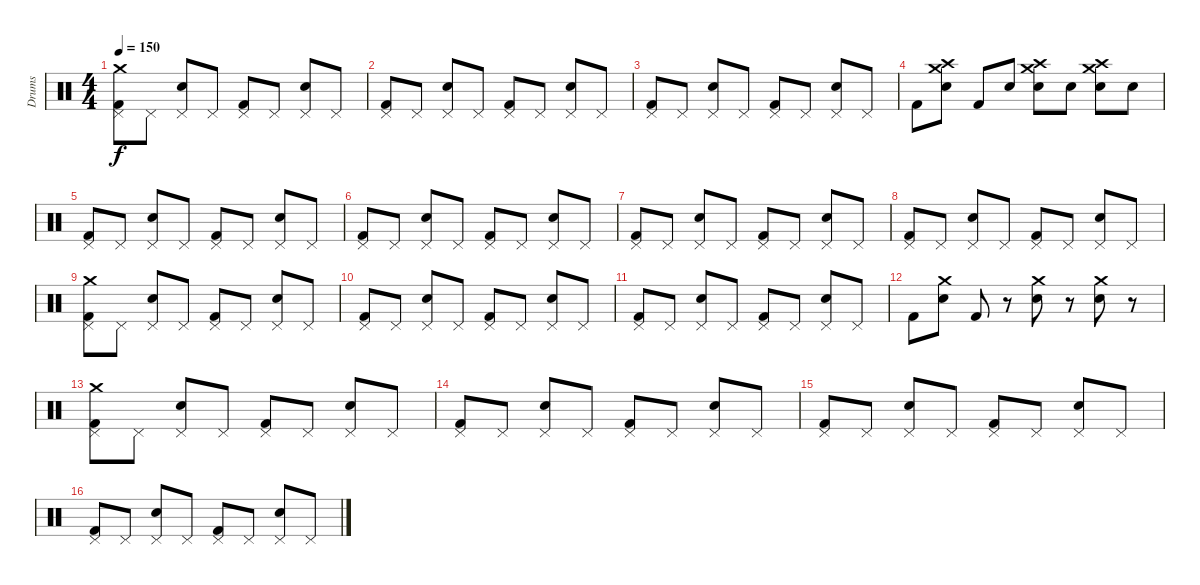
\track ("Drums" "Drums") {instrument percussion}
\staff {score}
\articulation defaults
\ts (4 4)
\tempo 150
\clef neutral
\ks c
("Crash medium (hit)" "Pedal Hi-Hat (hit)" "Kick (hit) 2").8{dy f} "Pedal Hi-Hat (hit)".8 ("Pedal Hi-Hat (hit)" "Electric Snare (hit)").8 "Pedal Hi-Hat (hit)".8 ("Pedal Hi-Hat (hit)" "Kick (hit) 2").8 "Pedal Hi-Hat (hit)".8 ("Pedal Hi-Hat (hit)" "Electric Snare (hit)").8 "Pedal Hi-Hat (hit)".8 |
("Pedal Hi-Hat (hit)" "Kick (hit) 2").8 "Pedal Hi-Hat (hit)".8 ("Pedal Hi-Hat (hit)" "Electric Snare (hit)").8 "Pedal Hi-Hat (hit)".8 ("Pedal Hi-Hat (hit)" "Kick (hit) 2").8 "Pedal Hi-Hat (hit)".8 ("Pedal Hi-Hat (hit)" "Electric Snare (hit)").8 "Pedal Hi-Hat (hit)".8 |
("Pedal Hi-Hat (hit)" "Kick (hit) 2").8 "Pedal Hi-Hat (hit)".8 ("Pedal Hi-Hat (hit)" "Electric Snare (hit)").8 "Pedal Hi-Hat (hit)".8 ("Pedal Hi-Hat (hit)" "Kick (hit) 2").8 "Pedal Hi-Hat (hit)".8 ("Pedal Hi-Hat (hit)" "Electric Snare (hit)").8 "Pedal Hi-Hat (hit)".8 |
"Kick (hit) 2".8 ("Crash high (hit)" "Crash medium (hit)" "Electric Snare (hit)").8 "Kick (hit) 2".8 "Snare (hit)".8 ("Crash high (hit)" "Crash medium (hit)" "Electric Snare (hit)").8 "Snare (hit)".8 ("Crash high (hit)" "Crash medium (hit)" "Electric Snare (hit)").8 "Snare (hit)".8 |
("Pedal Hi-Hat (hit)" "Kick (hit) 2").8 "Pedal Hi-Hat (hit)".8 ("Pedal Hi-Hat (hit)" "Electric Snare (hit)").8 "Pedal Hi-Hat (hit)".8 ("Pedal Hi-Hat (hit)" "Kick (hit) 2").8 "Pedal Hi-Hat (hit)".8 ("Pedal Hi-Hat (hit)" "Electric Snare (hit)").8 "Pedal Hi-Hat (hit)".8 |
("Pedal Hi-Hat (hit)" "Kick (hit) 2").8 "Pedal Hi-Hat (hit)".8 ("Pedal Hi-Hat (hit)" "Electric Snare (hit)").8 "Pedal Hi-Hat (hit)".8 ("Pedal Hi-Hat (hit)" "Kick (hit) 2").8 "Pedal Hi-Hat (hit)".8 ("Pedal Hi-Hat (hit)" "Electric Snare (hit)").8 "Pedal Hi-Hat (hit)".8 |
("Pedal Hi-Hat (hit)" "Kick (hit) 2").8 "Pedal Hi-Hat (hit)".8 ("Pedal Hi-Hat (hit)" "Electric Snare (hit)").8 "Pedal Hi-Hat (hit)".8 ("Pedal Hi-Hat (hit)" "Kick (hit) 2").8 "Pedal Hi-Hat (hit)".8 ("Pedal Hi-Hat (hit)" "Electric Snare (hit)").8 "Pedal Hi-Hat (hit)".8 |
("Pedal Hi-Hat (hit)" "Kick (hit) 2").8 "Pedal Hi-Hat (hit)".8 ("Pedal Hi-Hat (hit)" "Electric Snare (hit)").8 "Pedal Hi-Hat (hit)".8 ("Pedal Hi-Hat (hit)" "Kick (hit) 2").8 "Pedal Hi-Hat (hit)".8 ("Pedal Hi-Hat (hit)" "Electric Snare (hit)").8 "Pedal Hi-Hat (hit)".8 |
("Crash medium (hit)" "Pedal Hi-Hat (hit)" "Kick (hit) 2").8 "Pedal Hi-Hat (hit)".8 ("Pedal Hi-Hat (hit)" "Electric Snare (hit)").8 "Pedal Hi-Hat (hit)".8 ("Pedal Hi-Hat (hit)" "Kick (hit) 2").8 "Pedal Hi-Hat (hit)".8 ("Pedal Hi-Hat (hit)" "Electric Snare (hit)").8 "Pedal Hi-Hat (hit)".8 |
("Pedal Hi-Hat (hit)" "Kick (hit) 2").8 "Pedal Hi-Hat (hit)".8 ("Pedal Hi-Hat (hit)" "Electric Snare (hit)").8 "Pedal Hi-Hat (hit)".8 ("Pedal Hi-Hat (hit)" "Kick (hit) 2").8 "Pedal Hi-Hat (hit)".8 ("Pedal Hi-Hat (hit)" "Electric Snare (hit)").8 "Pedal Hi-Hat (hit)".8 |
("Pedal Hi-Hat (hit)" "Kick (hit) 2").8 "Pedal Hi-Hat (hit)".8 ("Pedal Hi-Hat (hit)" "Electric Snare (hit)").8 "Pedal Hi-Hat (hit)".8 ("Pedal Hi-Hat (hit)" "Kick (hit) 2").8 "Pedal Hi-Hat (hit)".8 ("Pedal Hi-Hat (hit)" "Electric Snare (hit)").8 "Pedal Hi-Hat (hit)".8 |
"Kick (hit) 2".8 ("Crash medium (hit)" "Electric Snare (hit)").8 "Kick (hit) 2".8 r.8 ("Crash medium (hit)" "Electric Snare (hit)").8 r.8 ("Crash medium (hit)" "Electric Snare (hit)").8 r.8 |
("Crash medium (hit)" "Pedal Hi-Hat (hit)" "Kick (hit) 2").8 "Pedal Hi-Hat (hit)".8 ("Pedal Hi-Hat (hit)" "Electric Snare (hit)").8 "Pedal Hi-Hat (hit)".8 ("Pedal Hi-Hat (hit)" "Kick (hit) 2").8 "Pedal Hi-Hat (hit)".8 ("Pedal Hi-Hat (hit)" "Electric Snare (hit)").8 "Pedal Hi-Hat (hit)".8 |
("Pedal Hi-Hat (hit)" "Kick (hit) 2").8 "Pedal Hi-Hat (hit)".8 ("Pedal Hi-Hat (hit)" "Electric Snare (hit)").8 "Pedal Hi-Hat (hit)".8 ("Pedal Hi-Hat (hit)" "Kick (hit) 2").8 "Pedal Hi-Hat (hit)".8 ("Pedal Hi-Hat (hit)" "Electric Snare (hit)").8 "Pedal Hi-Hat (hit)".8 |
("Pedal Hi-Hat (hit)" "Kick (hit) 2").8 "Pedal Hi-Hat (hit)".8 ("Pedal Hi-Hat (hit)" "Electric Snare (hit)").8 "Pedal Hi-Hat (hit)".8 ("Pedal Hi-Hat (hit)" "Kick (hit) 2").8 "Pedal Hi-Hat (hit)".8 ("Pedal Hi-Hat (hit)" "Electric Snare (hit)").8 "Pedal Hi-Hat (hit)".8 |
("Pedal Hi-Hat (hit)" "Kick (hit) 2").8 "Pedal Hi-Hat (hit)".8 ("Pedal Hi-Hat (hit)" "Electric Snare (hit)").8 "Pedal Hi-Hat (hit)".8 ("Pedal Hi-Hat (hit)" "Kick (hit) 2").8 "Pedal Hi-Hat (hit)".8 ("Pedal Hi-Hat (hit)" "Electric Snare (hit)").8 "Pedal Hi-Hat (hit)".8
